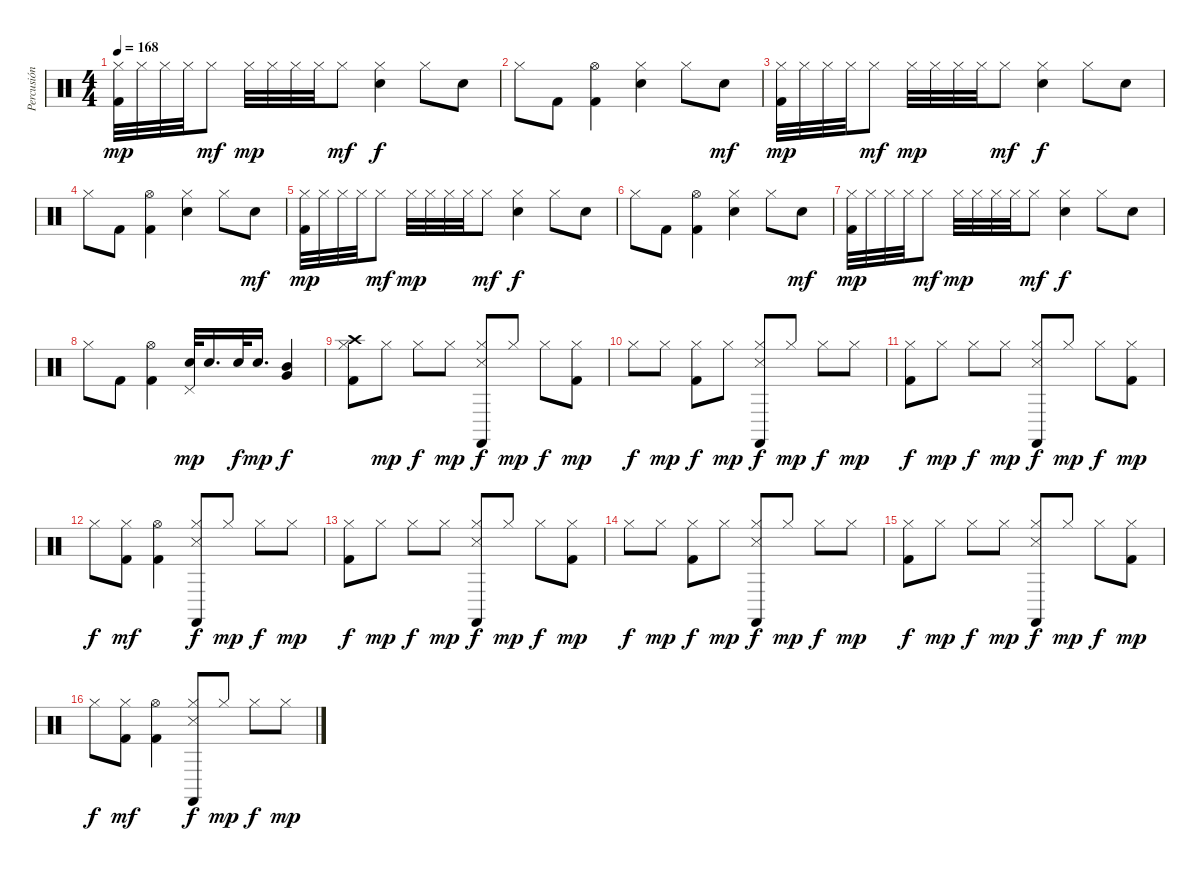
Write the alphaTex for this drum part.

\track ("Percusión" "Percusión") {instrument percussion}
\staff {score}
\articulation defaults
\ts (4 4)
\tempo 168
\clef neutral
\ks c
("Hi-Hat (closed)" "Kick (hit) 2").32{dy mp} "Hi-Hat (closed)".32 "Hi-Hat (closed)".32 "Hi-Hat (closed)".32 "Hi-Hat (closed)".8{dy mf} "Hi-Hat (closed)".32{dy mp} "Hi-Hat (closed)".32 "Hi-Hat (closed)".32 "Hi-Hat (closed)".32 "Hi-Hat (closed)".8{dy mf} ("Hi-Hat (closed)" "Electric Snare (hit)").4{dy f} "Hi-Hat (closed)".8 "Electric Snare (hit)".8 |
"Hi-Hat (closed)".8 "Kick (hit) 2".8 ("Hi-Hat (open)" "Kick (hit) 2").4 ("Hi-Hat (closed)" "Electric Snare (hit)").4 "Hi-Hat (closed)".8 "Electric Snare (hit)".8{dy mf} |
("Hi-Hat (closed)" "Kick (hit) 2").32{dy mp} "Hi-Hat (closed)".32 "Hi-Hat (closed)".32 "Hi-Hat (closed)".32 "Hi-Hat (closed)".8{dy mf} "Hi-Hat (closed)".32{dy mp} "Hi-Hat (closed)".32 "Hi-Hat (closed)".32 "Hi-Hat (closed)".32 "Hi-Hat (closed)".8{dy mf} ("Hi-Hat (closed)" "Electric Snare (hit)").4{dy f} "Hi-Hat (closed)".8 "Electric Snare (hit)".8 |
"Hi-Hat (closed)".8 "Kick (hit) 2".8 ("Hi-Hat (open)" "Kick (hit) 2").4 ("Hi-Hat (closed)" "Electric Snare (hit)").4 "Hi-Hat (closed)".8 "Electric Snare (hit)".8{dy mf} |
("Hi-Hat (closed)" "Kick (hit) 2").32{dy mp} "Hi-Hat (closed)".32 "Hi-Hat (closed)".32 "Hi-Hat (closed)".32 "Hi-Hat (closed)".8{dy mf} "Hi-Hat (closed)".32{dy mp} "Hi-Hat (closed)".32 "Hi-Hat (closed)".32 "Hi-Hat (closed)".32 "Hi-Hat (closed)".8{dy mf} ("Hi-Hat (closed)" "Electric Snare (hit)").4{dy f} "Hi-Hat (closed)".8 "Electric Snare (hit)".8 |
"Hi-Hat (closed)".8 "Kick (hit) 2".8 ("Hi-Hat (open)" "Kick (hit) 2").4 ("Hi-Hat (closed)" "Electric Snare (hit)").4 "Hi-Hat (closed)".8 "Electric Snare (hit)".8{dy mf} |
("Hi-Hat (closed)" "Kick (hit) 2").32{dy mp} "Hi-Hat (closed)".32 "Hi-Hat (closed)".32 "Hi-Hat (closed)".32 "Hi-Hat (closed)".8{dy mf} "Hi-Hat (closed)".32{dy mp} "Hi-Hat (closed)".32 "Hi-Hat (closed)".32 "Hi-Hat (closed)".32 "Hi-Hat (closed)".8{dy mf} ("Hi-Hat (closed)" "Electric Snare (hit)").4{dy f} "Hi-Hat (closed)".8 "Electric Snare (hit)".8 |
"Hi-Hat (closed)".8 "Kick (hit) 2".8 ("Hi-Hat (open)" "Kick (hit) 2").4 ("Pedal Hi-Hat (hit)" "Electric Snare (hit)").32{dy mp} "Electric Snare (hit)".16{d} "Electric Snare (hit)".32{dy f} "Electric Snare (hit)".16{d dy mp} ("Mid Tom (hit)" "Very Low Tom (hit)").4{dy f} |
("Crash high (hit)" "Hi-Hat (closed)" "Kick (hit) 2").8 "Hi-Hat (closed)".8{dy mp} "Hi-Hat (closed)".8{dy f} "Hi-Hat (closed)".8{dy mp} ("Hi-Hat (closed)" "Snare (side stick) 3" "Castanets (hit)").8{dy f} "Hi-Hat (closed)".8{dy mp} "Hi-Hat (closed)".8{dy f} ("Hi-Hat (closed)" "Kick (hit) 2").8{dy mp} |
"Hi-Hat (closed)".8{dy f} "Hi-Hat (closed)".8{dy mp} ("Hi-Hat (closed)" "Kick (hit) 2").8{dy f} "Hi-Hat (closed)".8{dy mp} ("Hi-Hat (closed)" "Snare (side stick) 3" "Castanets (hit)").8{dy f} "Hi-Hat (closed)".8{dy mp} "Hi-Hat (closed)".8{dy f} "Hi-Hat (closed)".8{dy mp} |
("Hi-Hat (closed)" "Kick (hit) 2").8{dy f} "Hi-Hat (closed)".8{dy mp} "Hi-Hat (closed)".8{dy f} "Hi-Hat (closed)".8{dy mp} ("Hi-Hat (closed)" "Snare (side stick) 3" "Castanets (hit)").8{dy f} "Hi-Hat (closed)".8{dy mp} "Hi-Hat (closed)".8{dy f} ("Hi-Hat (closed)" "Kick (hit) 2").8{dy mp} |
"Hi-Hat (closed)".8{dy f} ("Hi-Hat (closed)" "Kick (hit) 2").8{dy mf} ("Hi-Hat (open)" "Kick (hit) 2").4 ("Hi-Hat (closed)" "Snare (side stick) 3" "Castanets (hit)").8{dy f} "Hi-Hat (closed)".8{dy mp} "Hi-Hat (closed)".8{dy f} "Hi-Hat (closed)".8{dy mp} |
("Hi-Hat (closed)" "Kick (hit) 2").8{dy f} "Hi-Hat (closed)".8{dy mp} "Hi-Hat (closed)".8{dy f} "Hi-Hat (closed)".8{dy mp} ("Hi-Hat (closed)" "Snare (side stick) 3" "Castanets (hit)").8{dy f} "Hi-Hat (closed)".8{dy mp} "Hi-Hat (closed)".8{dy f} ("Hi-Hat (closed)" "Kick (hit) 2").8{dy mp} |
"Hi-Hat (closed)".8{dy f} "Hi-Hat (closed)".8{dy mp} ("Hi-Hat (closed)" "Kick (hit) 2").8{dy f} "Hi-Hat (closed)".8{dy mp} ("Hi-Hat (closed)" "Snare (side stick) 3" "Castanets (hit)").8{dy f} "Hi-Hat (closed)".8{dy mp} "Hi-Hat (closed)".8{dy f} "Hi-Hat (closed)".8{dy mp} |
("Hi-Hat (closed)" "Kick (hit) 2").8{dy f} "Hi-Hat (closed)".8{dy mp} "Hi-Hat (closed)".8{dy f} "Hi-Hat (closed)".8{dy mp} ("Hi-Hat (closed)" "Snare (side stick) 3" "Castanets (hit)").8{dy f} "Hi-Hat (closed)".8{dy mp} "Hi-Hat (closed)".8{dy f} ("Hi-Hat (closed)" "Kick (hit) 2").8{dy mp} |
"Hi-Hat (closed)".8{dy f} ("Hi-Hat (closed)" "Kick (hit) 2").8{dy mf} ("Hi-Hat (open)" "Kick (hit) 2").4 ("Hi-Hat (closed)" "Snare (side stick) 3" "Castanets (hit)").8{dy f} "Hi-Hat (closed)".8{dy mp} "Hi-Hat (closed)".8{dy f} "Hi-Hat (closed)".8{dy mp}
